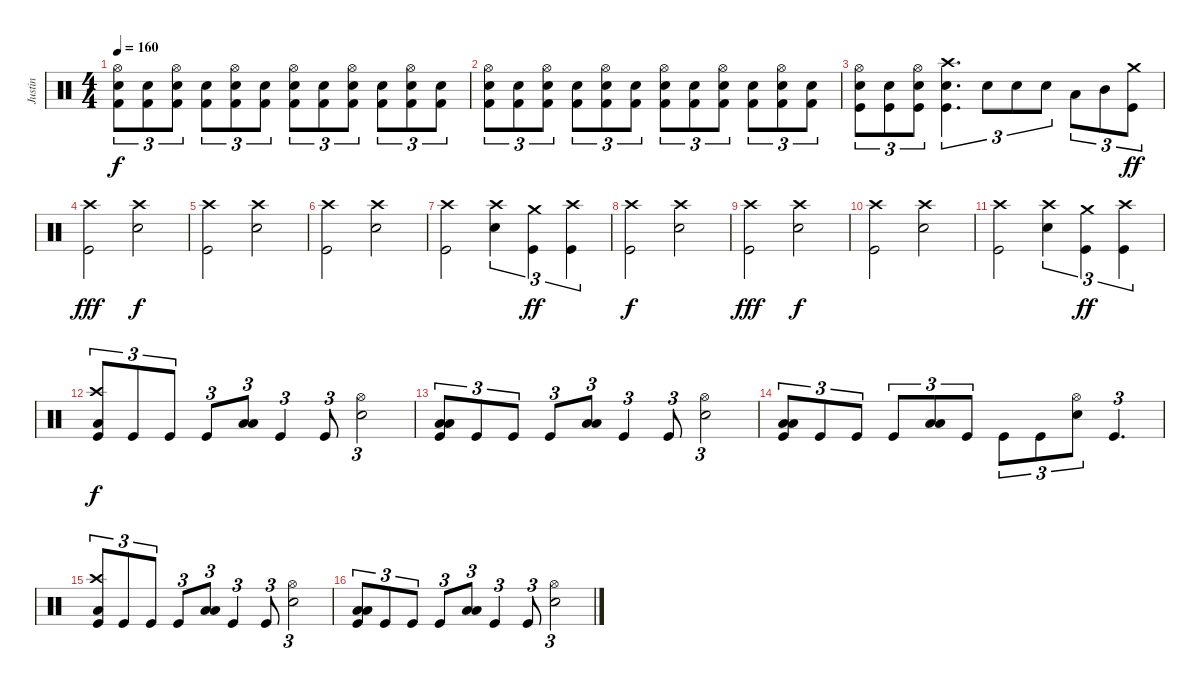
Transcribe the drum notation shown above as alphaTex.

\track ("Justin" "Justin") {instrument percussion}
\staff {score}
\articulation defaults
\ts (4 4)
\tempo 160
\clef neutral
\ks c
("Hi-Hat (open)" "Snare (hit) 2" "Kick (hit) 2").8{tu (3 2) dy f} ("Snare (hit) 2" "Kick (hit) 2").8{tu (3 2)} ("Hi-Hat (open)" "Snare (hit) 2" "Kick (hit) 2").8{tu (3 2)} ("Snare (hit) 2" "Kick (hit) 2").8{tu (3 2)} ("Hi-Hat (open)" "Snare (hit) 2" "Kick (hit) 2").8{tu (3 2)} ("Snare (hit) 2" "Kick (hit) 2").8{tu (3 2)} ("Hi-Hat (open)" "Snare (hit) 2" "Kick (hit) 2").8{tu (3 2)} ("Snare (hit) 2" "Kick (hit) 2").8{tu (3 2)} ("Hi-Hat (open)" "Snare (hit) 2" "Kick (hit) 2").8{tu (3 2)} ("Snare (hit) 2" "Kick (hit) 2").8{tu (3 2)} ("Hi-Hat (open)" "Snare (hit) 2" "Kick (hit) 2").8{tu (3 2)} ("Snare (hit) 2" "Kick (hit) 2").8{tu (3 2)} |
("Hi-Hat (open)" "Snare (hit) 2" "Kick (hit) 2").8{tu (3 2)} ("Snare (hit) 2" "Kick (hit) 2").8{tu (3 2)} ("Hi-Hat (open)" "Snare (hit) 2" "Kick (hit) 2").8{tu (3 2)} ("Snare (hit) 2" "Kick (hit) 2").8{tu (3 2)} ("Hi-Hat (open)" "Snare (hit) 2" "Kick (hit) 2").8{tu (3 2)} ("Snare (hit) 2" "Kick (hit) 2").8{tu (3 2)} ("Hi-Hat (open)" "Snare (hit) 2" "Kick (hit) 2").8{tu (3 2)} ("Snare (hit) 2" "Kick (hit) 2").8{tu (3 2)} ("Hi-Hat (open)" "Snare (hit) 2" "Kick (hit) 2").8{tu (3 2)} ("Snare (hit) 2" "Kick (hit) 2").8{tu (3 2)} ("Hi-Hat (open)" "Snare (hit) 2" "Kick (hit) 2").8{tu (3 2)} ("Snare (hit) 2" "Kick (hit) 2").8{tu (3 2)} |
("Hi-Hat (open)" "Electric Snare (hit)" "Kick (hit)").8{tu (3 2)} ("Electric Snare (hit)" "Kick (hit)").8{tu (3 2)} ("Hi-Hat (open)" "Electric Snare (hit)" "Kick (hit)").8{tu (3 2)} ("Crash high (hit)" "Electric Snare (hit)" "Kick (hit)").4{d tu (3 2)} "Electric Snare (hit)".8{tu (3 2)} "Electric Snare (hit)".8{tu (3 2)} "Electric Snare (hit)".8{tu (3 2)} "Low Tom (hit)".8{tu (3 2)} "Mid Tom (hit)".8{tu (3 2)} ("Crash medium (hit)" "Kick (hit)").8{tu (3 2) dy ff} |
("Crash high (hit)" "Kick (hit)").2{dy fff} ("Crash high (hit)" "Electric Snare (hit)").2{dy f} |
("Crash high (hit)" "Kick (hit)").2 ("Crash high (hit)" "Electric Snare (hit)").2 |
("Crash high (hit)" "Kick (hit)").2 ("Crash high (hit)" "Electric Snare (hit)").2 |
("Crash high (hit)" "Kick (hit)").2 ("Crash high (hit)" "Electric Snare (hit)").4{tu (3 2)} ("Crash medium (hit)" "Kick (hit)").4{tu (3 2) dy ff} ("Crash high (hit)" "Kick (hit)").4{tu (3 2)} |
("Crash high (hit)" "Kick (hit)").2{dy f} ("Crash high (hit)" "Electric Snare (hit)").2 |
("Crash high (hit)" "Kick (hit)").2{dy fff} ("Crash high (hit)" "Electric Snare (hit)").2{dy f} |
("Crash high (hit)" "Kick (hit)").2 ("Crash high (hit)" "Electric Snare (hit)").2 |
("Crash high (hit)" "Kick (hit)").2 ("Crash high (hit)" "Electric Snare (hit)").4{tu (3 2)} ("Crash medium (hit)" "Kick (hit)").4{tu (3 2) dy ff} ("Crash high (hit)" "Kick (hit)").4{tu (3 2)} |
("Low Floor Tom (hit)" "Crash high (hit)" "Kick (hit)").8{tu (3 2) dy f} "Kick (hit)".8{tu (3 2)} "Kick (hit)".8{tu (3 2)} "Kick (hit)".8{tu (3 2)} ("Low Floor Tom (hit)" "Low Tom (hit)").8{tu (3 2)} "Kick (hit)".4{tu (3 2)} "Kick (hit)".8{tu (3 2)} ("Hi-Hat (open)" "Electric Snare (hit)").2{tu (3 2)} |
("Low Tom (hit)" "Low Floor Tom (hit)" "Kick (hit)").8{tu (3 2)} "Kick (hit)".8{tu (3 2)} "Kick (hit)".8{tu (3 2)} "Kick (hit)".8{tu (3 2)} ("Low Floor Tom (hit)" "Low Tom (hit)").8{tu (3 2)} "Kick (hit)".4{tu (3 2)} "Kick (hit)".8{tu (3 2)} ("Hi-Hat (open)" "Electric Snare (hit)").2{tu (3 2)} |
("Low Tom (hit)" "Low Floor Tom (hit)" "Kick (hit)").8{tu (3 2)} "Kick (hit)".8{tu (3 2)} "Kick (hit)".8{tu (3 2)} "Kick (hit)".8{tu (3 2)} ("Low Floor Tom (hit)" "Low Tom (hit)").8{tu (3 2)} "Kick (hit)".8{tu (3 2)} "Kick (hit)".8{tu (3 2)} "Kick (hit)".8{tu (3 2)} ("Hi-Hat (open)" "Electric Snare (hit)").8{tu (3 2)} "Kick (hit)".4{d tu (3 2)} |
("Low Floor Tom (hit)" "Crash high (hit)" "Kick (hit)").8{tu (3 2)} "Kick (hit)".8{tu (3 2)} "Kick (hit)".8{tu (3 2)} "Kick (hit)".8{tu (3 2)} ("Low Floor Tom (hit)" "Low Tom (hit)").8{tu (3 2)} "Kick (hit)".4{tu (3 2)} "Kick (hit)".8{tu (3 2)} ("Hi-Hat (open)" "Electric Snare (hit)").2{tu (3 2)} |
("Low Tom (hit)" "Low Floor Tom (hit)" "Kick (hit)").8{tu (3 2)} "Kick (hit)".8{tu (3 2)} "Kick (hit)".8{tu (3 2)} "Kick (hit)".8{tu (3 2)} ("Low Floor Tom (hit)" "Low Tom (hit)").8{tu (3 2)} "Kick (hit)".4{tu (3 2)} "Kick (hit)".8{tu (3 2)} ("Hi-Hat (open)" "Electric Snare (hit)").2{tu (3 2)}
